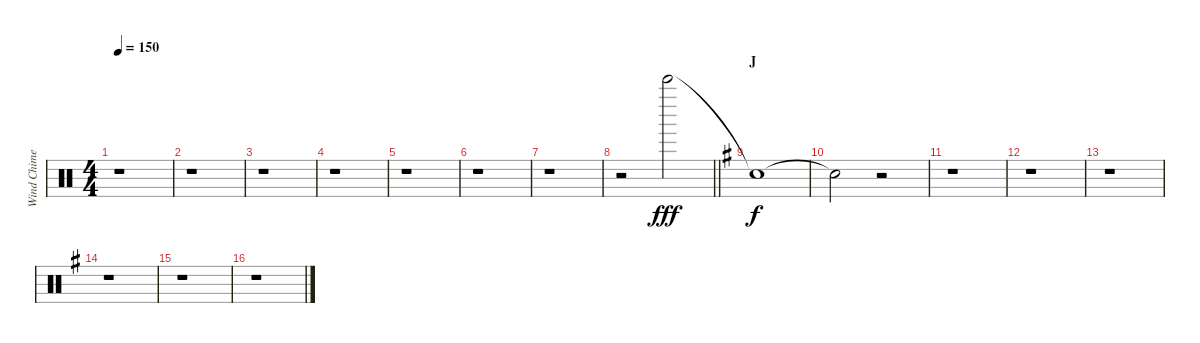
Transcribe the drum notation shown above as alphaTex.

\track ("Wind Chime" "Wind Chime") {instrument percussion}
\staff {score}
\articulation defaults
\ts (4 4)
\tempo 150
\clef neutral
\ks c
r.1{dy f} |
r.1 |
r.1 |
r.1 |
r.1 |
r.1 |
r.1 |
\barLineRight lightlight
r.2 "Bell Tree (hit)".2{dy fff} |
\section ("" "J")
\ks g "Snare (hit)"{t}.1{dy f}
|
"Snare (hit)"{t}.2 r.2 |
r.1 |
r.1 |
r.1 |
r.1 |
r.1 |
r.1
